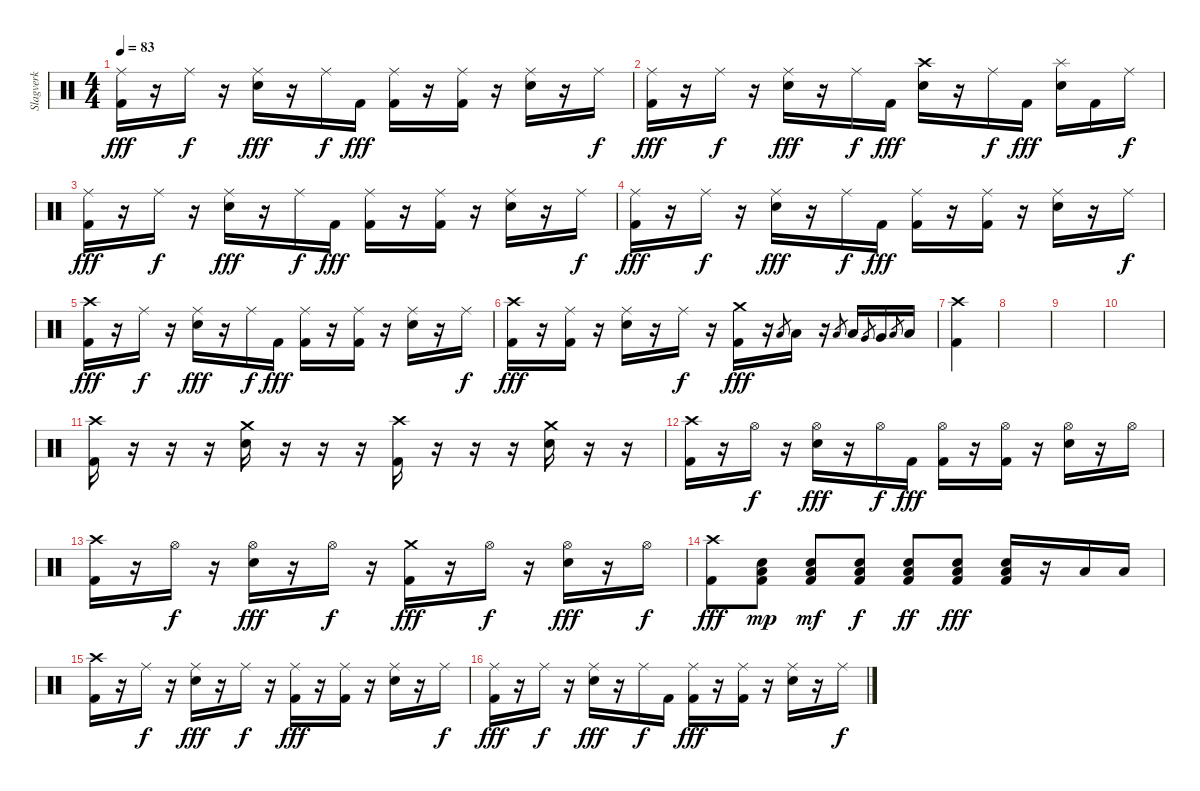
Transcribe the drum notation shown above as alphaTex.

\track ("Slagverk" "Slagverk") {instrument percussion}
\staff {score}
\articulation defaults
\ts (4 4)
\tempo 83
\clef neutral
\ks c
("Ride (middle)" "Kick (hit) 2").16{dy fff} r.16 "Ride (middle)".16{dy f} r.16 ("Ride (middle)" "Electric Snare (hit)").16{dy fff} r.16 "Ride (middle)".16{dy f} "Kick (hit) 2".16{dy fff} ("Ride (middle)" "Kick (hit) 2").16 r.16 ("Ride (middle)" "Kick (hit) 2").16 r.16 ("Ride (middle)" "Electric Snare (hit)").16 r.16 "Ride (middle)".16{dy f} |
("Ride (middle)" "Kick (hit) 2").16{dy fff} r.16 "Ride (middle)".16{dy f} r.16 ("Ride (middle)" "Electric Snare (hit)").16{dy fff} r.16 "Ride (middle)".16{dy f} "Kick (hit) 2".16{dy fff} ("Crash high (hit)" "Electric Snare (hit)").16 r.16 "Ride (middle)".16{dy f} "Kick (hit) 2".16{dy fff} ("Splash (hit)" "Electric Snare (hit)").16 "Kick (hit) 2".16 "Ride (middle)".16{dy f} |
("Ride (middle)" "Kick (hit) 2").16{dy fff} r.16 "Ride (middle)".16{dy f} r.16 ("Ride (middle)" "Electric Snare (hit)").16{dy fff} r.16 "Ride (middle)".16{dy f} "Kick (hit) 2".16{dy fff} ("Ride (middle)" "Kick (hit) 2").16 r.16 ("Ride (middle)" "Kick (hit) 2").16 r.16 ("Ride (middle)" "Electric Snare (hit)").16 r.16 "Ride (middle)".16{dy f} |
("Ride (middle)" "Kick (hit) 2").16{dy fff} r.16 "Ride (middle)".16{dy f} r.16 ("Ride (middle)" "Electric Snare (hit)").16{dy fff} r.16 "Ride (middle)".16{dy f} "Kick (hit) 2".16{dy fff} ("Ride (middle)" "Kick (hit) 2").16 r.16 ("Ride (middle)" "Kick (hit) 2").16 r.16 ("Ride (middle)" "Electric Snare (hit)").16 r.16 "Ride (middle)".16{dy f} |
("Crash high (hit)" "Kick (hit) 2").16{dy fff} r.16 "Ride (middle)".16{dy f} r.16 ("Ride (middle)" "Electric Snare (hit)").16{dy fff} r.16 "Ride (middle)".16{dy f} "Kick (hit) 2".16{dy fff} ("Ride (middle)" "Kick (hit) 2").16 r.16 ("Ride (middle)" "Kick (hit) 2").16 r.16 ("Ride (middle)" "Electric Snare (hit)").16 r.16 "Ride (middle)".16{dy f} |
("Crash high (hit)" "Kick (hit) 2").16{dy fff} r.16 ("Ride (middle)" "Kick (hit) 2").16 r.16 ("Ride (middle)" "Electric Snare (hit)").16 r.16 "Ride (middle)".16{dy f} r.16 ("Crash medium (hit)" "Kick (hit) 2").16{dy fff} r.16 "Low Tom (hit)".8{gr} "Low Tom (hit)".16 r.16 "Low Tom (hit)".8{gr} "Low Tom (hit)".16 "Very Low Tom (hit)".8{gr} "Very Low Tom (hit)".16 "Low Floor Tom (hit)".8{gr} "Low Floor Tom (hit)".16 |
("Crash high (hit)" "Kick (hit) 2").4 |
|
|
|
("Crash high (hit)" "Kick (hit) 2").16 r.16 r.16 r.16 ("Crash medium (hit)" "Electric Snare (hit)").16 r.16 r.16 r.16 ("Crash high (hit)" "Kick (hit) 2").16 r.16 r.16 r.16 ("Crash medium (hit)" "Electric Snare (hit)").16 r.16 r.16 |
("Crash high (hit)" "Kick (hit) 2").16 r.16 "Hi-Hat (open)".16{dy f} r.16 ("Hi-Hat (open)" "Electric Snare (hit)").16{dy fff} r.16 "Hi-Hat (open)".16{dy f} "Kick (hit) 2".16{dy fff} ("Hi-Hat (open)" "Kick (hit) 2").16 r.16 ("Hi-Hat (open)" "Kick (hit) 2").16 r.16 ("Hi-Hat (open)" "Electric Snare (hit)").16 r.16 "Hi-Hat (open)".16 |
("Crash high (hit)" "Kick (hit) 2").16 r.16 "Hi-Hat (open)".16{dy f} r.16 ("Hi-Hat (open)" "Electric Snare (hit)").16{dy fff} r.16 "Hi-Hat (open)".16{dy f} r.16 ("Crash medium (hit)" "Kick (hit) 2").16{dy fff} r.16 "Hi-Hat (open)".16{dy f} r.16 ("Hi-Hat (open)" "Electric Snare (hit)").16{dy fff} r.16 "Hi-Hat (open)".16{dy f} |
("Crash high (hit)" "Kick (hit) 2").8{dy fff} ("Low Floor Tom (hit)" "Electric Snare (hit)" "Kick (hit) 2").8{dy mp} ("Low Floor Tom (hit)" "Electric Snare (hit)" "Kick (hit) 2").8{dy mf} ("Low Floor Tom (hit)" "Electric Snare (hit)" "Kick (hit) 2").8{dy f} ("Low Floor Tom (hit)" "Electric Snare (hit)" "Kick (hit) 2").8{dy ff} ("Low Floor Tom (hit)" "Electric Snare (hit)" "Kick (hit) 2").8{dy fff} ("Low Floor Tom (hit)" "Electric Snare (hit)" "Kick (hit) 2").16 r.16 "Low Tom (hit)".16 "Low Tom (hit)".16 |
("Crash high (hit)" "Kick (hit) 2").16 r.16 "Ride (middle)".16{dy f} r.16 ("Ride (middle)" "Electric Snare (hit)").16{dy fff} r.16 "Ride (middle)".16{dy f} r.16 ("Ride (middle)" "Kick (hit) 2").16{dy fff} r.16 ("Ride (middle)" "Kick (hit) 2").16 r.16 ("Ride (middle)" "Electric Snare (hit)").16 r.16 "Ride (middle)".16{dy f} |
("Ride (middle)" "Kick (hit) 2").16{dy fff} r.16 "Ride (middle)".16{dy f} r.16 ("Ride (middle)" "Electric Snare (hit)").16{dy fff} r.16 "Ride (middle)".16{dy f} "Kick (hit) 2".16 ("Ride (middle)" "Kick (hit) 2").16{dy fff} r.16 ("Ride (middle)" "Kick (hit) 2").16 r.16 ("Ride (middle)" "Electric Snare (hit)").16 r.16 "Ride (middle)".16{dy f}
